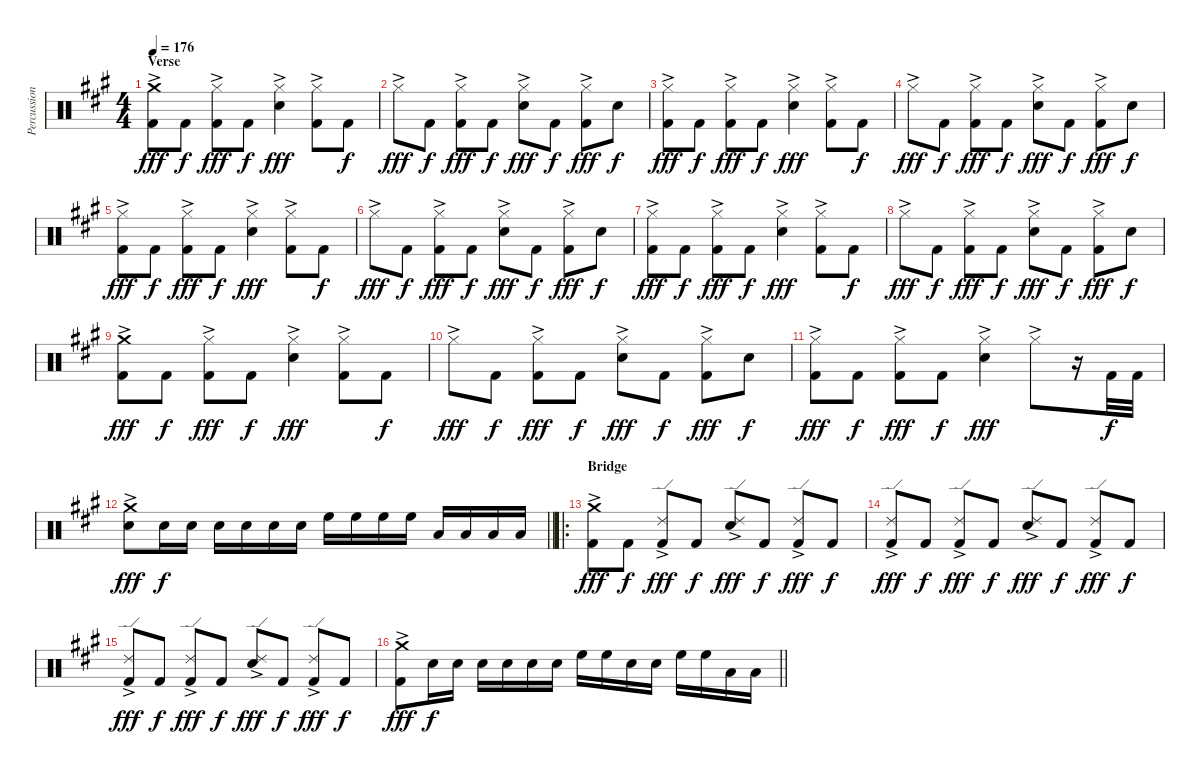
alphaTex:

\track ("Percussion" "Percussion") {instrument percussion}
\staff {score}
\articulation defaults
\ts (4 4)
\section ("" "Verse")
\tempo 176
\clef neutral
\ks a
("Crash medium (hit)"{ac} "Kick (hit) 2").8{dy fff} "Kick (hit) 2".8{dy f} ("Hi-Hat (closed)"{ac} "Kick (hit) 2").8{dy fff} "Kick (hit) 2".8{dy f} ("Hi-Hat (closed)"{ac} "Snare (hit) 2").4{dy fff} ("Hi-Hat (closed)"{ac} "Kick (hit) 2").8 "Kick (hit) 2".8{dy f} |
"Hi-Hat (closed)"{ac}.8{dy fff} "Kick (hit) 2".8{dy f} ("Hi-Hat (closed)"{ac} "Kick (hit) 2").8{dy fff} "Kick (hit) 2".8{dy f} ("Hi-Hat (closed)"{ac} "Snare (hit) 2").8{dy fff} "Kick (hit) 2".8{dy f} ("Hi-Hat (closed)"{ac} "Kick (hit) 2").8{dy fff} "Snare (hit) 2".8{dy f} |
("Hi-Hat (closed)"{ac} "Kick (hit) 2").8{dy fff} "Kick (hit) 2".8{dy f} ("Hi-Hat (closed)"{ac} "Kick (hit) 2").8{dy fff} "Kick (hit) 2".8{dy f} ("Hi-Hat (closed)"{ac} "Snare (hit) 2").4{dy fff} ("Hi-Hat (closed)"{ac} "Kick (hit) 2").8 "Kick (hit) 2".8{dy f} |
"Hi-Hat (closed)"{ac}.8{dy fff} "Kick (hit) 2".8{dy f} ("Hi-Hat (closed)"{ac} "Kick (hit) 2").8{dy fff} "Kick (hit) 2".8{dy f} ("Hi-Hat (closed)"{ac} "Snare (hit) 2").8{dy fff} "Kick (hit) 2".8{dy f} ("Hi-Hat (closed)"{ac} "Kick (hit) 2").8{dy fff} "Snare (hit) 2".8{dy f} |
("Hi-Hat (closed)"{ac} "Kick (hit) 2").8{dy fff} "Kick (hit) 2".8{dy f} ("Hi-Hat (closed)"{ac} "Kick (hit) 2").8{dy fff} "Kick (hit) 2".8{dy f} ("Hi-Hat (closed)"{ac} "Snare (hit) 2").4{dy fff} ("Hi-Hat (closed)"{ac} "Kick (hit) 2").8 "Kick (hit) 2".8{dy f} |
"Hi-Hat (closed)"{ac}.8{dy fff} "Kick (hit) 2".8{dy f} ("Hi-Hat (closed)"{ac} "Kick (hit) 2").8{dy fff} "Kick (hit) 2".8{dy f} ("Hi-Hat (closed)"{ac} "Snare (hit) 2").8{dy fff} "Kick (hit) 2".8{dy f} ("Hi-Hat (closed)"{ac} "Kick (hit) 2").8{dy fff} "Snare (hit) 2".8{dy f} |
("Hi-Hat (closed)"{ac} "Kick (hit) 2").8{dy fff} "Kick (hit) 2".8{dy f} ("Hi-Hat (closed)"{ac} "Kick (hit) 2").8{dy fff} "Kick (hit) 2".8{dy f} ("Hi-Hat (closed)"{ac} "Snare (hit) 2").4{dy fff} ("Hi-Hat (closed)"{ac} "Kick (hit) 2").8 "Kick (hit) 2".8{dy f} |
"Hi-Hat (closed)"{ac}.8{dy fff} "Kick (hit) 2".8{dy f} ("Hi-Hat (closed)"{ac} "Kick (hit) 2").8{dy fff} "Kick (hit) 2".8{dy f} ("Hi-Hat (closed)"{ac} "Snare (hit) 2").8{dy fff} "Kick (hit) 2".8{dy f} ("Hi-Hat (closed)"{ac} "Kick (hit) 2").8{dy fff} "Snare (hit) 2".8{dy f} |
("Crash medium (hit)"{ac} "Kick (hit) 2").8{dy fff} "Kick (hit) 2".8{dy f} ("Hi-Hat (closed)"{ac} "Kick (hit) 2").8{dy fff} "Kick (hit) 2".8{dy f} ("Hi-Hat (closed)"{ac} "Snare (hit) 2").4{dy fff} ("Hi-Hat (closed)"{ac} "Kick (hit) 2").8 "Kick (hit) 2".8{dy f} |
"Hi-Hat (closed)"{ac}.8{dy fff} "Kick (hit) 2".8{dy f} ("Hi-Hat (closed)"{ac} "Kick (hit) 2").8{dy fff} "Kick (hit) 2".8{dy f} ("Hi-Hat (closed)"{ac} "Snare (hit) 2").8{dy fff} "Kick (hit) 2".8{dy f} ("Hi-Hat (closed)"{ac} "Kick (hit) 2").8{dy fff} "Snare (hit) 2".8{dy f} |
("Hi-Hat (closed)"{ac} "Kick (hit) 2").8{dy fff} "Kick (hit) 2".8{dy f} ("Hi-Hat (closed)"{ac} "Kick (hit) 2").8{dy fff} "Kick (hit) 2".8{dy f} ("Hi-Hat (closed)"{ac} "Snare (hit) 2").4{dy fff} "Hi-Hat (closed)"{ac}.8 r.16 "Kick (hit) 2".32{dy f} "Kick (hit) 2".32 |
\barLineRight lightlight
("Crash medium (hit)"{ac} "Snare (hit) 2"{ac}).8{dy fff} "Snare (hit) 2".16{dy f} "Snare (hit) 2".16 "Snare (hit) 2".16 "Snare (hit) 2".16 "Snare (hit) 2".16 "Snare (hit) 2".16 "High Floor Tom (hit)".16 "High Floor Tom (hit)".16 "High Floor Tom (hit)".16 "High Floor Tom (hit)".16 "Low Floor Tom (hit)".16 "Low Floor Tom (hit)".16 "Low Floor Tom (hit)".16 "Low Floor Tom (hit)".16 |
\ro
\section ("" "Bridge")
("Crash medium (hit)"{ac} "Kick (hit) 2").8{dy fff} "Kick (hit) 2".8{dy f} ("Ride (edge) 2"{ac} "Kick (hit) 2").8{dy fff} "Kick (hit) 2".8{dy f} ("Ride (edge) 2"{ac} "Snare (hit) 2").8{dy fff} "Kick (hit) 2".8{dy f} ("Ride (edge) 2"{ac} "Kick (hit) 2").8{dy fff} "Kick (hit) 2".8{dy f} |
("Ride (edge) 2"{ac} "Kick (hit) 2").8{dy fff} "Kick (hit) 2".8{dy f} ("Ride (edge) 2"{ac} "Kick (hit) 2").8{dy fff} "Kick (hit) 2".8{dy f} ("Ride (edge) 2"{ac} "Snare (hit) 2").8{dy fff} "Kick (hit) 2".8{dy f} ("Ride (edge) 2"{ac} "Kick (hit) 2").8{dy fff} "Kick (hit) 2".8{dy f} |
("Ride (edge) 2"{ac} "Kick (hit) 2").8{dy fff} "Kick (hit) 2".8{dy f} ("Ride (edge) 2"{ac} "Kick (hit) 2").8{dy fff} "Kick (hit) 2".8{dy f} ("Ride (edge) 2"{ac} "Snare (hit) 2").8{dy fff} "Kick (hit) 2".8{dy f} ("Ride (edge) 2"{ac} "Kick (hit) 2").8{dy fff} "Kick (hit) 2".8{dy f} |
\barLineRight lightlight
("Crash medium (hit)"{ac} "Kick (hit) 2").8{dy fff} "Snare (hit) 2".16{dy f} "Snare (hit) 2".16 "Snare (hit) 2".16 "Snare (hit) 2".16 "Snare (hit) 2".16 "Snare (hit) 2".16 "High Floor Tom (hit)".16 "High Floor Tom (hit)".16 "Snare (hit) 2".16 "Snare (hit) 2".16 "High Floor Tom (hit)".16 "High Floor Tom (hit)".16 "Low Floor Tom (hit)".16 "Low Floor Tom (hit)".16
